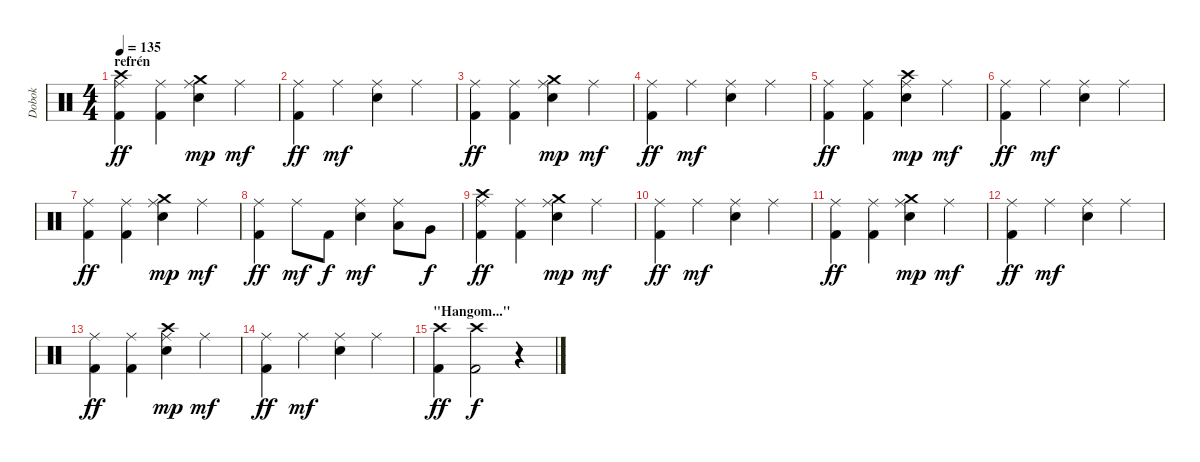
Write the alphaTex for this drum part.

\track ("Dobok" "Dobok") {instrument percussion}
\staff {score}
\articulation defaults
\ts (4 4)
\section ("" "refrén")
\tempo 135
\clef neutral
\ks c
("Ride (middle)" "Crash high (hit)" "Kick (hit) 2").4{dy ff} ("Ride (middle)" "Kick (hit) 2").4 ("Ride (middle)" "Crash medium (hit)" "Electric Snare (hit)").4{dy mp} "Ride (middle)".4{dy mf} |
("Ride (middle)" "Kick (hit) 2").4{dy ff} "Ride (middle)".4{dy mf} ("Ride (middle)" "Electric Snare (hit)").4 "Ride (middle)".4 |
("Ride (middle)" "Kick (hit) 2").4{dy ff} ("Ride (middle)" "Kick (hit) 2").4 ("Ride (middle)" "Crash medium (hit)" "Electric Snare (hit)").4{dy mp} "Ride (middle)".4{dy mf} |
("Ride (middle)" "Kick (hit) 2").4{dy ff} "Ride (middle)".4{dy mf} ("Ride (middle)" "Electric Snare (hit)").4 "Ride (middle)".4 |
("Ride (middle)" "Kick (hit) 2").4{dy ff} ("Ride (middle)" "Kick (hit) 2").4 ("Ride (middle)" "Crash high (hit)" "Electric Snare (hit)").4{dy mp} "Ride (middle)".4{dy mf} |
("Ride (middle)" "Kick (hit) 2").4{dy ff} "Ride (middle)".4{dy mf} ("Ride (middle)" "Electric Snare (hit)").4 "Ride (middle)".4 |
("Ride (middle)" "Kick (hit) 2").4{dy ff} ("Ride (middle)" "Kick (hit) 2").4 ("Ride (middle)" "Crash medium (hit)" "Electric Snare (hit)").4{dy mp} "Ride (middle)".4{dy mf} |
("Ride (middle)" "Kick (hit) 2").4{dy ff} "Ride (middle)".8{dy mf} "Kick (hit) 2".8{dy f} ("Ride (middle)" "Electric Snare (hit)").4{dy mf} ("Ride (middle)" "Low Tom (hit)").8 "Very Low Tom (hit)".8{dy f} |
("Ride (middle)" "Crash high (hit)" "Kick (hit) 2").4{dy ff} ("Ride (middle)" "Kick (hit) 2").4 ("Ride (middle)" "Crash medium (hit)" "Electric Snare (hit)").4{dy mp} "Ride (middle)".4{dy mf} |
("Ride (middle)" "Kick (hit) 2").4{dy ff} "Ride (middle)".4{dy mf} ("Ride (middle)" "Electric Snare (hit)").4 "Ride (middle)".4 |
("Ride (middle)" "Kick (hit) 2").4{dy ff} ("Ride (middle)" "Kick (hit) 2").4 ("Ride (middle)" "Crash medium (hit)" "Electric Snare (hit)").4{dy mp} "Ride (middle)".4{dy mf} |
("Ride (middle)" "Kick (hit) 2").4{dy ff} "Ride (middle)".4{dy mf} ("Ride (middle)" "Electric Snare (hit)").4 "Ride (middle)".4 |
("Ride (middle)" "Kick (hit) 2").4{dy ff} ("Ride (middle)" "Kick (hit) 2").4 ("Ride (middle)" "Crash high (hit)" "Electric Snare (hit)").4{dy mp} "Ride (middle)".4{dy mf} |
("Ride (middle)" "Kick (hit) 2").4{dy ff} "Ride (middle)".4{dy mf} ("Ride (middle)" "Electric Snare (hit)").4 "Ride (middle)".4 |
\section ("" "\"Hangom...\"")
("Crash high (hit)" "Kick (hit) 2").4{dy ff} ("Crash high (hit)" "Kick (hit) 2").2{dy f} r.4
